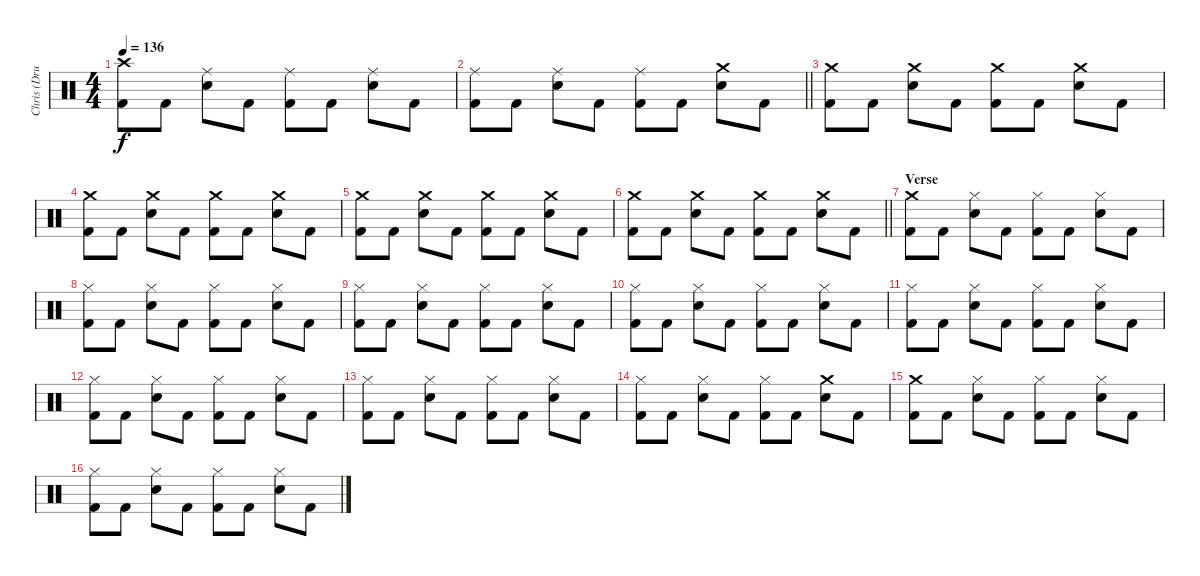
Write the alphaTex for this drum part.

\track ("Chris (Drums)" "Chris (Dru") {instrument percussion}
\staff {score}
\articulation defaults
\ts (4 4)
\tempo 136
\clef neutral
\ks c
("Crash high (hit)" "Kick (hit) 2").8{dy f} "Kick (hit) 2".8 ("Ride (middle)" "Snare (hit) 2").8 "Kick (hit) 2".8 ("Ride (middle)" "Kick (hit) 2").8 "Kick (hit) 2".8 ("Ride (middle)" "Snare (hit) 2").8 "Kick (hit) 2".8 |
\barLineRight lightlight
("Ride (middle)" "Kick (hit) 2").8 "Kick (hit) 2".8 ("Ride (middle)" "Snare (hit) 2").8 "Kick (hit) 2".8 ("Ride (middle)" "Kick (hit) 2").8 "Kick (hit) 2".8 ("Crash medium (hit)" "Snare (hit) 2").8 "Kick (hit) 2".8 |
("Crash medium (hit)" "Kick (hit) 2").8 "Kick (hit) 2".8 ("Crash medium (hit)" "Snare (hit) 2").8 "Kick (hit) 2".8 ("Crash medium (hit)" "Kick (hit) 2").8 "Kick (hit) 2".8 ("Crash medium (hit)" "Snare (hit) 2").8 "Kick (hit) 2".8 |
("Crash medium (hit)" "Kick (hit) 2").8 "Kick (hit) 2".8 ("Crash medium (hit)" "Snare (hit) 2").8 "Kick (hit) 2".8 ("Crash medium (hit)" "Kick (hit) 2").8 "Kick (hit) 2".8 ("Crash medium (hit)" "Snare (hit) 2").8 "Kick (hit) 2".8 |
("Crash medium (hit)" "Kick (hit) 2").8 "Kick (hit) 2".8 ("Crash medium (hit)" "Snare (hit) 2").8 "Kick (hit) 2".8 ("Crash medium (hit)" "Kick (hit) 2").8 "Kick (hit) 2".8 ("Crash medium (hit)" "Snare (hit) 2").8 "Kick (hit) 2".8 |
\barLineRight lightlight
("Crash medium (hit)" "Kick (hit) 2").8 "Kick (hit) 2".8 ("Crash medium (hit)" "Snare (hit) 2").8 "Kick (hit) 2".8 ("Crash medium (hit)" "Kick (hit) 2").8 "Kick (hit) 2".8 ("Crash medium (hit)" "Snare (hit) 2").8 "Kick (hit) 2".8 |
\section ("" "Verse")
("Crash medium (hit)" "Kick (hit) 2").8 "Kick (hit) 2".8 ("Hi-Hat (closed)" "Snare (hit) 2").8 "Kick (hit) 2".8 ("Hi-Hat (closed)" "Kick (hit) 2").8 "Kick (hit) 2".8 ("Hi-Hat (closed)" "Snare (hit) 2").8 "Kick (hit) 2".8 |
("Hi-Hat (closed)" "Kick (hit) 2").8 "Kick (hit) 2".8 ("Hi-Hat (closed)" "Snare (hit) 2").8 "Kick (hit) 2".8 ("Hi-Hat (closed)" "Kick (hit) 2").8 "Kick (hit) 2".8 ("Hi-Hat (closed)" "Snare (hit) 2").8 "Kick (hit) 2".8 |
("Hi-Hat (closed)" "Kick (hit) 2").8 "Kick (hit) 2".8 ("Hi-Hat (closed)" "Snare (hit) 2").8 "Kick (hit) 2".8 ("Hi-Hat (closed)" "Kick (hit) 2").8 "Kick (hit) 2".8 ("Hi-Hat (closed)" "Snare (hit) 2").8 "Kick (hit) 2".8 |
("Hi-Hat (closed)" "Kick (hit) 2").8 "Kick (hit) 2".8 ("Hi-Hat (closed)" "Snare (hit) 2").8 "Kick (hit) 2".8 ("Hi-Hat (closed)" "Kick (hit) 2").8 "Kick (hit) 2".8 ("Hi-Hat (closed)" "Snare (hit) 2").8 "Kick (hit) 2".8 |
("Hi-Hat (closed)" "Kick (hit) 2").8 "Kick (hit) 2".8 ("Hi-Hat (closed)" "Snare (hit) 2").8 "Kick (hit) 2".8 ("Hi-Hat (closed)" "Kick (hit) 2").8 "Kick (hit) 2".8 ("Hi-Hat (closed)" "Snare (hit) 2").8 "Kick (hit) 2".8 |
("Hi-Hat (closed)" "Kick (hit) 2").8 "Kick (hit) 2".8 ("Hi-Hat (closed)" "Snare (hit) 2").8 "Kick (hit) 2".8 ("Hi-Hat (closed)" "Kick (hit) 2").8 "Kick (hit) 2".8 ("Hi-Hat (closed)" "Snare (hit) 2").8 "Kick (hit) 2".8 |
("Hi-Hat (closed)" "Kick (hit) 2").8 "Kick (hit) 2".8 ("Hi-Hat (closed)" "Snare (hit) 2").8 "Kick (hit) 2".8 ("Hi-Hat (closed)" "Kick (hit) 2").8 "Kick (hit) 2".8 ("Hi-Hat (closed)" "Snare (hit) 2").8 "Kick (hit) 2".8 |
("Hi-Hat (closed)" "Kick (hit) 2").8 "Kick (hit) 2".8 ("Hi-Hat (closed)" "Snare (hit) 2").8 "Kick (hit) 2".8 ("Hi-Hat (closed)" "Kick (hit) 2").8 "Kick (hit) 2".8 ("Crash medium (hit)" "Snare (hit) 2").8 "Kick (hit) 2".8 |
("Crash medium (hit)" "Kick (hit) 2").8 "Kick (hit) 2".8 ("Hi-Hat (closed)" "Snare (hit) 2").8 "Kick (hit) 2".8 ("Hi-Hat (closed)" "Kick (hit) 2").8 "Kick (hit) 2".8 ("Hi-Hat (closed)" "Snare (hit) 2").8 "Kick (hit) 2".8 |
("Hi-Hat (closed)" "Kick (hit) 2").8 "Kick (hit) 2".8 ("Hi-Hat (closed)" "Snare (hit) 2").8 "Kick (hit) 2".8 ("Hi-Hat (closed)" "Kick (hit) 2").8 "Kick (hit) 2".8 ("Hi-Hat (closed)" "Snare (hit) 2").8 "Kick (hit) 2".8
